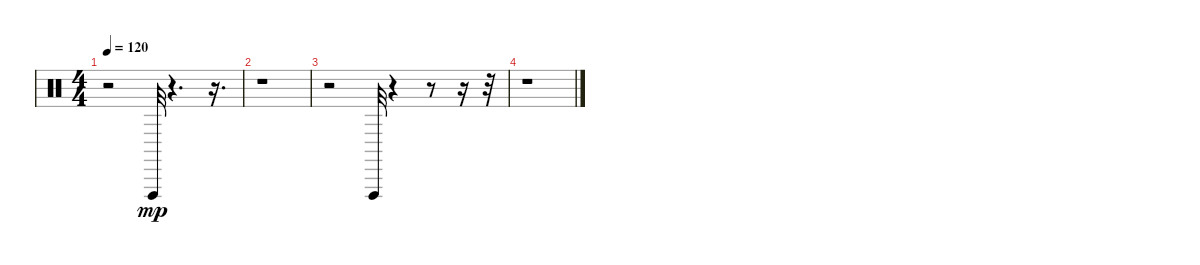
\track "" {instrument percussion}
\staff {score}
\articulation defaults
\ts (4 4)
\tempo 120
\clef neutral
\ks c
r.2{dy mp} "Vibraslap (hit)".32 r.4{d} r.16{d} |
r.1 |
r.2 "Vibraslap (hit)".32 r.4 r.8 r.16 r.32 |
r.1
